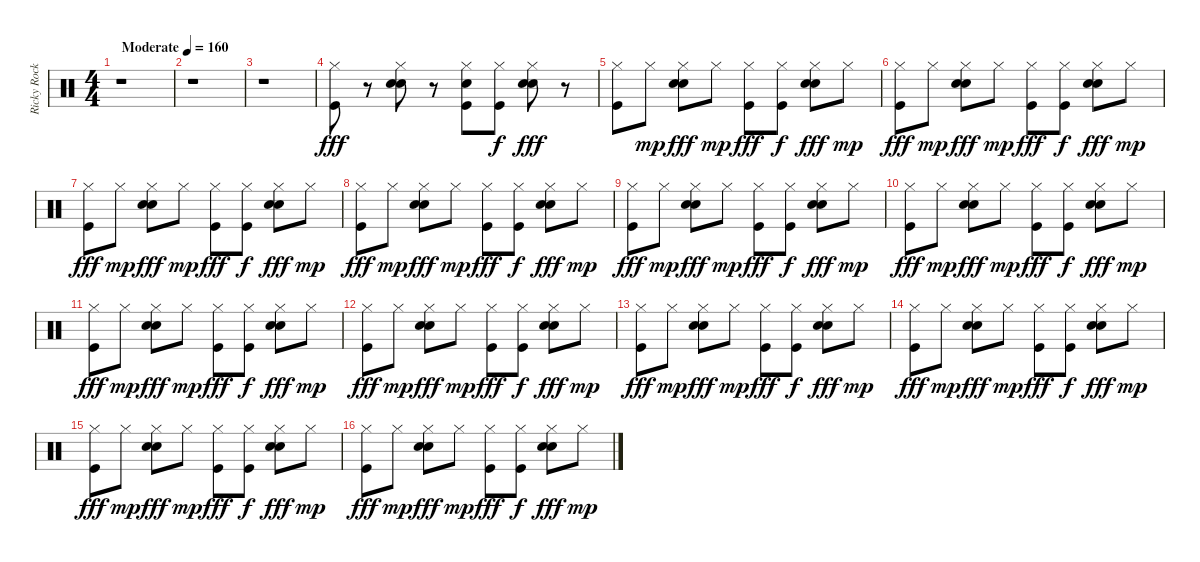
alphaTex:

\track ("Ricky Rockett" "Ricky Rock") {instrument percussion}
\staff {score}
\articulation defaults
\ts (4 4)
\tempo (160 "Moderate")
\clef neutral
\ks c
r.1{dy fff} |
r.1 |
r.1 |
("Hi-Hat (closed)" "Kick (hit)").8 r.8 ("Snare (hit) 2" "Hi-Hat (closed)" "Electric Snare (hit)").8 r.8 ("Hi-Hat (closed)" "Kick (hit)" "Electric Snare (hit)").8 ("Hi-Hat (closed)" "Kick (hit)").8{dy f} ("Snare (hit) 2" "Hi-Hat (closed)" "Electric Snare (hit)").8{dy fff} r.8 |
("Hi-Hat (closed)" "Kick (hit)").8 "Hi-Hat (closed)".8{dy mp} ("Snare (hit) 2" "Hi-Hat (closed)" "Electric Snare (hit)").8{dy fff} "Hi-Hat (closed)".8{dy mp} ("Hi-Hat (closed)" "Kick (hit)").8{dy fff} ("Hi-Hat (closed)" "Kick (hit)").8{dy f} ("Snare (hit) 2" "Hi-Hat (closed)" "Electric Snare (hit)").8{dy fff} "Hi-Hat (closed)".8{dy mp} |
("Hi-Hat (closed)" "Kick (hit)").8{dy fff} "Hi-Hat (closed)".8{dy mp} ("Snare (hit) 2" "Hi-Hat (closed)" "Electric Snare (hit)").8{dy fff} "Hi-Hat (closed)".8{dy mp} ("Hi-Hat (closed)" "Kick (hit)").8{dy fff} ("Hi-Hat (closed)" "Kick (hit)").8{dy f} ("Snare (hit) 2" "Hi-Hat (closed)" "Electric Snare (hit)").8{dy fff} "Hi-Hat (closed)".8{dy mp} |
("Hi-Hat (closed)" "Kick (hit)").8{dy fff} "Hi-Hat (closed)".8{dy mp} ("Snare (hit) 2" "Hi-Hat (closed)" "Electric Snare (hit)").8{dy fff} "Hi-Hat (closed)".8{dy mp} ("Hi-Hat (closed)" "Kick (hit)").8{dy fff} ("Hi-Hat (closed)" "Kick (hit)").8{dy f} ("Snare (hit) 2" "Hi-Hat (closed)" "Electric Snare (hit)").8{dy fff} "Hi-Hat (closed)".8{dy mp} |
("Hi-Hat (closed)" "Kick (hit)").8{dy fff} "Hi-Hat (closed)".8{dy mp} ("Snare (hit) 2" "Hi-Hat (closed)" "Electric Snare (hit)").8{dy fff} "Hi-Hat (closed)".8{dy mp} ("Hi-Hat (closed)" "Kick (hit)").8{dy fff} ("Hi-Hat (closed)" "Kick (hit)").8{dy f} ("Snare (hit) 2" "Hi-Hat (closed)" "Electric Snare (hit)").8{dy fff} "Hi-Hat (closed)".8{dy mp} |
("Hi-Hat (closed)" "Kick (hit)").8{dy fff} "Hi-Hat (closed)".8{dy mp} ("Snare (hit) 2" "Hi-Hat (closed)" "Electric Snare (hit)").8{dy fff} "Hi-Hat (closed)".8{dy mp} ("Hi-Hat (closed)" "Kick (hit)").8{dy fff} ("Hi-Hat (closed)" "Kick (hit)").8{dy f} ("Snare (hit) 2" "Hi-Hat (closed)" "Electric Snare (hit)").8{dy fff} "Hi-Hat (closed)".8{dy mp} |
("Hi-Hat (closed)" "Kick (hit)").8{dy fff} "Hi-Hat (closed)".8{dy mp} ("Snare (hit) 2" "Hi-Hat (closed)" "Electric Snare (hit)").8{dy fff} "Hi-Hat (closed)".8{dy mp} ("Hi-Hat (closed)" "Kick (hit)").8{dy fff} ("Hi-Hat (closed)" "Kick (hit)").8{dy f} ("Snare (hit) 2" "Hi-Hat (closed)" "Electric Snare (hit)").8{dy fff} "Hi-Hat (closed)".8{dy mp} |
("Hi-Hat (closed)" "Kick (hit)").8{dy fff} "Hi-Hat (closed)".8{dy mp} ("Snare (hit) 2" "Hi-Hat (closed)" "Electric Snare (hit)").8{dy fff} "Hi-Hat (closed)".8{dy mp} ("Hi-Hat (closed)" "Kick (hit)").8{dy fff} ("Hi-Hat (closed)" "Kick (hit)").8{dy f} ("Snare (hit) 2" "Hi-Hat (closed)" "Electric Snare (hit)").8{dy fff} "Hi-Hat (closed)".8{dy mp} |
("Hi-Hat (closed)" "Kick (hit)").8{dy fff} "Hi-Hat (closed)".8{dy mp} ("Snare (hit) 2" "Hi-Hat (closed)" "Electric Snare (hit)").8{dy fff} "Hi-Hat (closed)".8{dy mp} ("Hi-Hat (closed)" "Kick (hit)").8{dy fff} ("Hi-Hat (closed)" "Kick (hit)").8{dy f} ("Snare (hit) 2" "Hi-Hat (closed)" "Electric Snare (hit)").8{dy fff} "Hi-Hat (closed)".8{dy mp} |
("Hi-Hat (closed)" "Kick (hit)").8{dy fff} "Hi-Hat (closed)".8{dy mp} ("Snare (hit) 2" "Hi-Hat (closed)" "Electric Snare (hit)").8{dy fff} "Hi-Hat (closed)".8{dy mp} ("Hi-Hat (closed)" "Kick (hit)").8{dy fff} ("Hi-Hat (closed)" "Kick (hit)").8{dy f} ("Snare (hit) 2" "Hi-Hat (closed)" "Electric Snare (hit)").8{dy fff} "Hi-Hat (closed)".8{dy mp} |
("Hi-Hat (closed)" "Kick (hit)").8{dy fff} "Hi-Hat (closed)".8{dy mp} ("Snare (hit) 2" "Hi-Hat (closed)" "Electric Snare (hit)").8{dy fff} "Hi-Hat (closed)".8{dy mp} ("Hi-Hat (closed)" "Kick (hit)").8{dy fff} ("Hi-Hat (closed)" "Kick (hit)").8{dy f} ("Snare (hit) 2" "Hi-Hat (closed)" "Electric Snare (hit)").8{dy fff} "Hi-Hat (closed)".8{dy mp} |
("Hi-Hat (closed)" "Kick (hit)").8{dy fff} "Hi-Hat (closed)".8{dy mp} ("Snare (hit) 2" "Hi-Hat (closed)" "Electric Snare (hit)").8{dy fff} "Hi-Hat (closed)".8{dy mp} ("Hi-Hat (closed)" "Kick (hit)").8{dy fff} ("Hi-Hat (closed)" "Kick (hit)").8{dy f} ("Snare (hit) 2" "Hi-Hat (closed)" "Electric Snare (hit)").8{dy fff} "Hi-Hat (closed)".8{dy mp} |
("Hi-Hat (closed)" "Kick (hit)").8{dy fff} "Hi-Hat (closed)".8{dy mp} ("Snare (hit) 2" "Hi-Hat (closed)" "Electric Snare (hit)").8{dy fff} "Hi-Hat (closed)".8{dy mp} ("Hi-Hat (closed)" "Kick (hit)").8{dy fff} ("Hi-Hat (closed)" "Kick (hit)").8{dy f} ("Snare (hit) 2" "Hi-Hat (closed)" "Electric Snare (hit)").8{dy fff} "Hi-Hat (closed)".8{dy mp}
